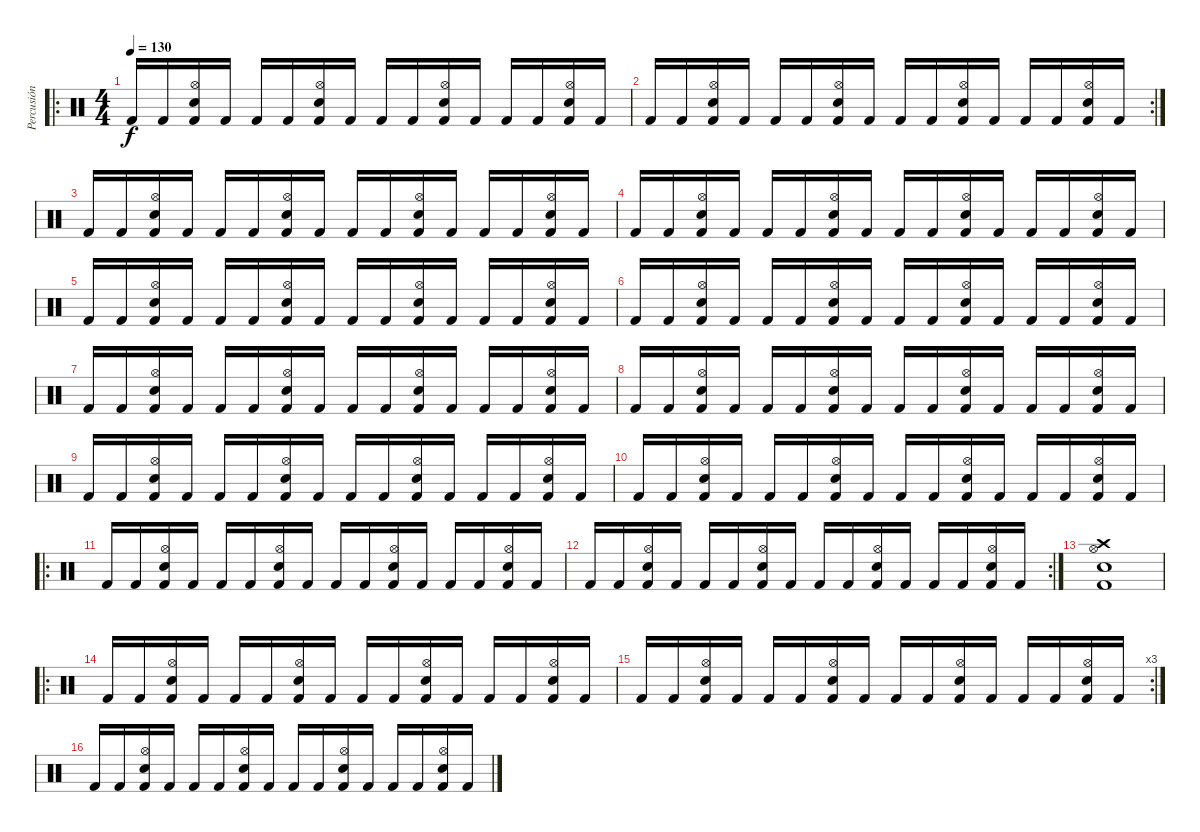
\track ("Percusión" "Percusión") {instrument percussion}
\staff {score}
\articulation defaults
\ro
\ts (4 4)
\tempo 130
\clef neutral
\ks c "Kick (hit) 2".16{dy f} "Kick (hit) 2".16
("Hi-Hat (open)" "Electric Snare (hit)" "Kick (hit) 2").16 "Kick (hit) 2".16 "Kick (hit) 2".16 "Kick (hit) 2".16 ("Hi-Hat (open)" "Electric Snare (hit)" "Kick (hit) 2").16 "Kick (hit) 2".16 "Kick (hit) 2".16 "Kick (hit) 2".16 ("Electric Snare (hit)" "Kick (hit) 2" "Hi-Hat (open)").16 "Kick (hit) 2".16 "Kick (hit) 2".16 "Kick (hit) 2".16 ("Electric Snare (hit)" "Kick (hit) 2" "Hi-Hat (open)").16 "Kick (hit) 2".16 |
\rc 2 "Kick (hit) 2".16 "Kick (hit) 2".16
("Hi-Hat (open)" "Electric Snare (hit)" "Kick (hit) 2").16 "Kick (hit) 2".16 "Kick (hit) 2".16 "Kick (hit) 2".16 ("Hi-Hat (open)" "Electric Snare (hit)" "Kick (hit) 2").16 "Kick (hit) 2".16 "Kick (hit) 2".16 "Kick (hit) 2".16 ("Electric Snare (hit)" "Kick (hit) 2" "Hi-Hat (open)").16 "Kick (hit) 2".16 "Kick (hit) 2".16 "Kick (hit) 2".16 ("Electric Snare (hit)" "Kick (hit) 2" "Hi-Hat (open)").16 "Kick (hit) 2".16 |
"Kick (hit) 2".16 "Kick (hit) 2".16 ("Hi-Hat (open)" "Electric Snare (hit)" "Kick (hit) 2").16 "Kick (hit) 2".16 "Kick (hit) 2".16 "Kick (hit) 2".16 ("Hi-Hat (open)" "Electric Snare (hit)" "Kick (hit) 2").16 "Kick (hit) 2".16 "Kick (hit) 2".16 "Kick (hit) 2".16 ("Electric Snare (hit)" "Kick (hit) 2" "Hi-Hat (open)").16 "Kick (hit) 2".16 "Kick (hit) 2".16 "Kick (hit) 2".16 ("Electric Snare (hit)" "Kick (hit) 2" "Hi-Hat (open)").16 "Kick (hit) 2".16 |
"Kick (hit) 2".16 "Kick (hit) 2".16 ("Hi-Hat (open)" "Electric Snare (hit)" "Kick (hit) 2").16 "Kick (hit) 2".16 "Kick (hit) 2".16 "Kick (hit) 2".16 ("Hi-Hat (open)" "Electric Snare (hit)" "Kick (hit) 2").16 "Kick (hit) 2".16 "Kick (hit) 2".16 "Kick (hit) 2".16 ("Electric Snare (hit)" "Kick (hit) 2" "Hi-Hat (open)").16 "Kick (hit) 2".16 "Kick (hit) 2".16 "Kick (hit) 2".16 ("Electric Snare (hit)" "Kick (hit) 2" "Hi-Hat (open)").16 "Kick (hit) 2".16 |
"Kick (hit) 2".16 "Kick (hit) 2".16 ("Hi-Hat (open)" "Electric Snare (hit)" "Kick (hit) 2").16 "Kick (hit) 2".16 "Kick (hit) 2".16 "Kick (hit) 2".16 ("Hi-Hat (open)" "Electric Snare (hit)" "Kick (hit) 2").16 "Kick (hit) 2".16 "Kick (hit) 2".16 "Kick (hit) 2".16 ("Electric Snare (hit)" "Kick (hit) 2" "Hi-Hat (open)").16 "Kick (hit) 2".16 "Kick (hit) 2".16 "Kick (hit) 2".16 ("Electric Snare (hit)" "Kick (hit) 2" "Hi-Hat (open)").16 "Kick (hit) 2".16 |
"Kick (hit) 2".16 "Kick (hit) 2".16 ("Hi-Hat (open)" "Electric Snare (hit)" "Kick (hit) 2").16 "Kick (hit) 2".16 "Kick (hit) 2".16 "Kick (hit) 2".16 ("Hi-Hat (open)" "Electric Snare (hit)" "Kick (hit) 2").16 "Kick (hit) 2".16 "Kick (hit) 2".16 "Kick (hit) 2".16 ("Electric Snare (hit)" "Kick (hit) 2" "Hi-Hat (open)").16 "Kick (hit) 2".16 "Kick (hit) 2".16 "Kick (hit) 2".16 ("Electric Snare (hit)" "Kick (hit) 2" "Hi-Hat (open)").16 "Kick (hit) 2".16 |
"Kick (hit) 2".16 "Kick (hit) 2".16 ("Hi-Hat (open)" "Electric Snare (hit)" "Kick (hit) 2").16 "Kick (hit) 2".16 "Kick (hit) 2".16 "Kick (hit) 2".16 ("Hi-Hat (open)" "Electric Snare (hit)" "Kick (hit) 2").16 "Kick (hit) 2".16 "Kick (hit) 2".16 "Kick (hit) 2".16 ("Electric Snare (hit)" "Kick (hit) 2" "Hi-Hat (open)").16 "Kick (hit) 2".16 "Kick (hit) 2".16 "Kick (hit) 2".16 ("Electric Snare (hit)" "Kick (hit) 2" "Hi-Hat (open)").16 "Kick (hit) 2".16 |
"Kick (hit) 2".16 "Kick (hit) 2".16 ("Hi-Hat (open)" "Electric Snare (hit)" "Kick (hit) 2").16 "Kick (hit) 2".16 "Kick (hit) 2".16 "Kick (hit) 2".16 ("Hi-Hat (open)" "Electric Snare (hit)" "Kick (hit) 2").16 "Kick (hit) 2".16 "Kick (hit) 2".16 "Kick (hit) 2".16 ("Electric Snare (hit)" "Kick (hit) 2" "Hi-Hat (open)").16 "Kick (hit) 2".16 "Kick (hit) 2".16 "Kick (hit) 2".16 ("Electric Snare (hit)" "Kick (hit) 2" "Hi-Hat (open)").16 "Kick (hit) 2".16 |
"Kick (hit) 2".16 "Kick (hit) 2".16 ("Hi-Hat (open)" "Electric Snare (hit)" "Kick (hit) 2").16 "Kick (hit) 2".16 "Kick (hit) 2".16 "Kick (hit) 2".16 ("Hi-Hat (open)" "Electric Snare (hit)" "Kick (hit) 2").16 "Kick (hit) 2".16 "Kick (hit) 2".16 "Kick (hit) 2".16 ("Electric Snare (hit)" "Kick (hit) 2" "Hi-Hat (open)").16 "Kick (hit) 2".16 "Kick (hit) 2".16 "Kick (hit) 2".16 ("Electric Snare (hit)" "Kick (hit) 2" "Hi-Hat (open)").16 "Kick (hit) 2".16 |
"Kick (hit) 2".16 "Kick (hit) 2".16 ("Hi-Hat (open)" "Electric Snare (hit)" "Kick (hit) 2").16 "Kick (hit) 2".16 "Kick (hit) 2".16 "Kick (hit) 2".16 ("Hi-Hat (open)" "Electric Snare (hit)" "Kick (hit) 2").16 "Kick (hit) 2".16 "Kick (hit) 2".16 "Kick (hit) 2".16 ("Electric Snare (hit)" "Kick (hit) 2" "Hi-Hat (open)").16 "Kick (hit) 2".16 "Kick (hit) 2".16 "Kick (hit) 2".16 ("Electric Snare (hit)" "Kick (hit) 2" "Hi-Hat (open)").16 "Kick (hit) 2".16 |
\ro "Kick (hit) 2".16 "Kick (hit) 2".16
("Hi-Hat (open)" "Electric Snare (hit)" "Kick (hit) 2").16 "Kick (hit) 2".16 "Kick (hit) 2".16 "Kick (hit) 2".16 ("Hi-Hat (open)" "Electric Snare (hit)" "Kick (hit) 2").16 "Kick (hit) 2".16 "Kick (hit) 2".16 "Kick (hit) 2".16 ("Electric Snare (hit)" "Kick (hit) 2" "Hi-Hat (open)").16 "Kick (hit) 2".16 "Kick (hit) 2".16 "Kick (hit) 2".16 ("Electric Snare (hit)" "Kick (hit) 2" "Hi-Hat (open)").16 "Kick (hit) 2".16 |
\rc 2 "Kick (hit) 2".16 "Kick (hit) 2".16
("Hi-Hat (open)" "Electric Snare (hit)" "Kick (hit) 2").16 "Kick (hit) 2".16 "Kick (hit) 2".16 "Kick (hit) 2".16 ("Hi-Hat (open)" "Electric Snare (hit)" "Kick (hit) 2").16 "Kick (hit) 2".16 "Kick (hit) 2".16 "Kick (hit) 2".16 ("Electric Snare (hit)" "Kick (hit) 2" "Hi-Hat (open)").16 "Kick (hit) 2".16 "Kick (hit) 2".16 "Kick (hit) 2".16 ("Electric Snare (hit)" "Kick (hit) 2" "Hi-Hat (open)").16 "Kick (hit) 2".16 |
("Electric Snare (hit)" "Kick (hit) 2" "Hi-Hat (open)" "Crash high (hit)").1 |
\ro "Kick (hit) 2".16 "Kick (hit) 2".16
("Hi-Hat (open)" "Electric Snare (hit)" "Kick (hit) 2").16 "Kick (hit) 2".16 "Kick (hit) 2".16 "Kick (hit) 2".16 ("Hi-Hat (open)" "Electric Snare (hit)" "Kick (hit) 2").16 "Kick (hit) 2".16 "Kick (hit) 2".16 "Kick (hit) 2".16 ("Electric Snare (hit)" "Kick (hit) 2" "Hi-Hat (open)").16 "Kick (hit) 2".16 "Kick (hit) 2".16 "Kick (hit) 2".16 ("Electric Snare (hit)" "Kick (hit) 2" "Hi-Hat (open)").16 "Kick (hit) 2".16 |
\rc 3 "Kick (hit) 2".16 "Kick (hit) 2".16
("Hi-Hat (open)" "Electric Snare (hit)" "Kick (hit) 2").16 "Kick (hit) 2".16 "Kick (hit) 2".16 "Kick (hit) 2".16 ("Hi-Hat (open)" "Electric Snare (hit)" "Kick (hit) 2").16 "Kick (hit) 2".16 "Kick (hit) 2".16 "Kick (hit) 2".16 ("Electric Snare (hit)" "Kick (hit) 2" "Hi-Hat (open)").16 "Kick (hit) 2".16 "Kick (hit) 2".16 "Kick (hit) 2".16 ("Electric Snare (hit)" "Kick (hit) 2" "Hi-Hat (open)").16 "Kick (hit) 2".16 |
"Kick (hit) 2".16 "Kick (hit) 2".16 ("Hi-Hat (open)" "Electric Snare (hit)" "Kick (hit) 2").16 "Kick (hit) 2".16 "Kick (hit) 2".16 "Kick (hit) 2".16 ("Hi-Hat (open)" "Electric Snare (hit)" "Kick (hit) 2").16 "Kick (hit) 2".16 "Kick (hit) 2".16 "Kick (hit) 2".16 ("Electric Snare (hit)" "Kick (hit) 2" "Hi-Hat (open)").16 "Kick (hit) 2".16 "Kick (hit) 2".16 "Kick (hit) 2".16 ("Electric Snare (hit)" "Kick (hit) 2" "Hi-Hat (open)").16 "Kick (hit) 2".16
